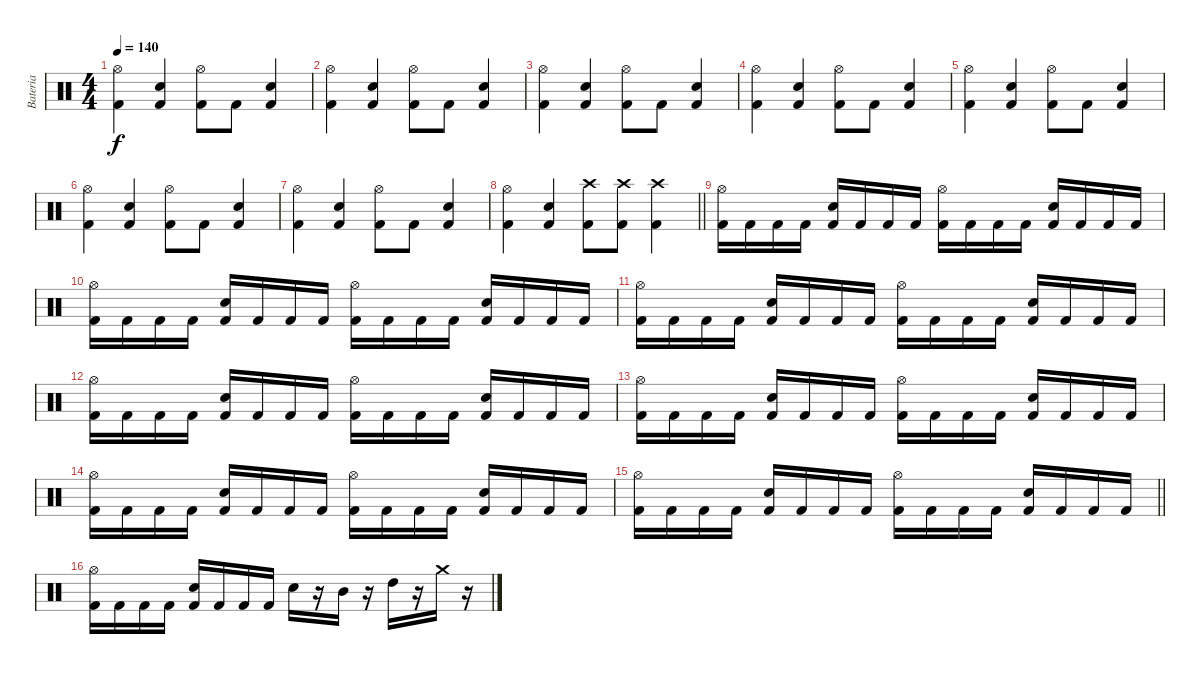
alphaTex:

\track ("Bateria" "Bateria") {instrument percussion}
\staff {score}
\articulation defaults
\ts (4 4)
\tempo 140
\clef neutral
\ks c
("Kick (hit) 2" "Hi-Hat (open)").4{dy f} ("Kick (hit) 2" "Electric Snare (hit)").4 ("Kick (hit) 2" "Hi-Hat (open)").8 "Kick (hit) 2".8 ("Kick (hit) 2" "Electric Snare (hit)").4 |
("Kick (hit) 2" "Hi-Hat (open)").4 ("Kick (hit) 2" "Electric Snare (hit)").4 ("Kick (hit) 2" "Hi-Hat (open)").8 "Kick (hit) 2".8 ("Kick (hit) 2" "Electric Snare (hit)").4 |
("Kick (hit) 2" "Hi-Hat (open)").4 ("Kick (hit) 2" "Electric Snare (hit)").4 ("Kick (hit) 2" "Hi-Hat (open)").8 "Kick (hit) 2".8 ("Kick (hit) 2" "Electric Snare (hit)").4 |
("Kick (hit) 2" "Hi-Hat (open)").4 ("Kick (hit) 2" "Electric Snare (hit)").4 ("Kick (hit) 2" "Hi-Hat (open)").8 "Kick (hit) 2".8 ("Kick (hit) 2" "Electric Snare (hit)").4 |
("Kick (hit) 2" "Hi-Hat (open)").4 ("Kick (hit) 2" "Electric Snare (hit)").4 ("Kick (hit) 2" "Hi-Hat (open)").8 "Kick (hit) 2".8 ("Kick (hit) 2" "Electric Snare (hit)").4 |
("Kick (hit) 2" "Hi-Hat (open)").4 ("Kick (hit) 2" "Electric Snare (hit)").4 ("Kick (hit) 2" "Hi-Hat (open)").8 "Kick (hit) 2".8 ("Kick (hit) 2" "Electric Snare (hit)").4 |
("Kick (hit) 2" "Hi-Hat (open)").4 ("Kick (hit) 2" "Electric Snare (hit)").4 ("Kick (hit) 2" "Hi-Hat (open)").8 "Kick (hit) 2".8 ("Kick (hit) 2" "Electric Snare (hit)").4 |
\barLineRight lightlight
("Kick (hit) 2" "Hi-Hat (open)").4 ("Kick (hit) 2" "Electric Snare (hit)").4 ("Kick (hit) 2" "Crash high (hit)").8 ("Kick (hit) 2" "Crash high (hit)").8 ("Kick (hit) 2" "Crash high (hit)").4 |
("Kick (hit) 2" "Hi-Hat (open)").16 "Kick (hit) 2".16 "Kick (hit) 2".16 "Kick (hit) 2".16 ("Kick (hit) 2" "Electric Snare (hit)").16 "Kick (hit) 2".16 "Kick (hit) 2".16 "Kick (hit) 2".16 ("Kick (hit) 2" "Hi-Hat (open)").16 "Kick (hit) 2".16 "Kick (hit) 2".16 "Kick (hit) 2".16 ("Kick (hit) 2" "Electric Snare (hit)").16 "Kick (hit) 2".16 "Kick (hit) 2".16 "Kick (hit) 2".16 |
("Kick (hit) 2" "Hi-Hat (open)").16 "Kick (hit) 2".16 "Kick (hit) 2".16 "Kick (hit) 2".16 ("Kick (hit) 2" "Electric Snare (hit)").16 "Kick (hit) 2".16 "Kick (hit) 2".16 "Kick (hit) 2".16 ("Kick (hit) 2" "Hi-Hat (open)").16 "Kick (hit) 2".16 "Kick (hit) 2".16 "Kick (hit) 2".16 ("Kick (hit) 2" "Electric Snare (hit)").16 "Kick (hit) 2".16 "Kick (hit) 2".16 "Kick (hit) 2".16 |
("Kick (hit) 2" "Hi-Hat (open)").16 "Kick (hit) 2".16 "Kick (hit) 2".16 "Kick (hit) 2".16 ("Kick (hit) 2" "Electric Snare (hit)").16 "Kick (hit) 2".16 "Kick (hit) 2".16 "Kick (hit) 2".16 ("Kick (hit) 2" "Hi-Hat (open)").16 "Kick (hit) 2".16 "Kick (hit) 2".16 "Kick (hit) 2".16 ("Kick (hit) 2" "Electric Snare (hit)").16 "Kick (hit) 2".16 "Kick (hit) 2".16 "Kick (hit) 2".16 |
("Kick (hit) 2" "Hi-Hat (open)").16 "Kick (hit) 2".16 "Kick (hit) 2".16 "Kick (hit) 2".16 ("Kick (hit) 2" "Electric Snare (hit)").16 "Kick (hit) 2".16 "Kick (hit) 2".16 "Kick (hit) 2".16 ("Kick (hit) 2" "Hi-Hat (open)").16 "Kick (hit) 2".16 "Kick (hit) 2".16 "Kick (hit) 2".16 ("Kick (hit) 2" "Electric Snare (hit)").16 "Kick (hit) 2".16 "Kick (hit) 2".16 "Kick (hit) 2".16 |
("Kick (hit) 2" "Hi-Hat (open)").16 "Kick (hit) 2".16 "Kick (hit) 2".16 "Kick (hit) 2".16 ("Kick (hit) 2" "Electric Snare (hit)").16 "Kick (hit) 2".16 "Kick (hit) 2".16 "Kick (hit) 2".16 ("Kick (hit) 2" "Hi-Hat (open)").16 "Kick (hit) 2".16 "Kick (hit) 2".16 "Kick (hit) 2".16 ("Kick (hit) 2" "Electric Snare (hit)").16 "Kick (hit) 2".16 "Kick (hit) 2".16 "Kick (hit) 2".16 |
("Kick (hit) 2" "Hi-Hat (open)").16 "Kick (hit) 2".16 "Kick (hit) 2".16 "Kick (hit) 2".16 ("Kick (hit) 2" "Electric Snare (hit)").16 "Kick (hit) 2".16 "Kick (hit) 2".16 "Kick (hit) 2".16 ("Kick (hit) 2" "Hi-Hat (open)").16 "Kick (hit) 2".16 "Kick (hit) 2".16 "Kick (hit) 2".16 ("Kick (hit) 2" "Electric Snare (hit)").16 "Kick (hit) 2".16 "Kick (hit) 2".16 "Kick (hit) 2".16 |
\barLineRight lightlight
("Kick (hit) 2" "Hi-Hat (open)").16 "Kick (hit) 2".16 "Kick (hit) 2".16 "Kick (hit) 2".16 ("Kick (hit) 2" "Electric Snare (hit)").16 "Kick (hit) 2".16 "Kick (hit) 2".16 "Kick (hit) 2".16 ("Kick (hit) 2" "Hi-Hat (open)").16 "Kick (hit) 2".16 "Kick (hit) 2".16 "Kick (hit) 2".16 ("Kick (hit) 2" "Electric Snare (hit)").16 "Kick (hit) 2".16 "Kick (hit) 2".16 "Kick (hit) 2".16 |
("Kick (hit) 2" "Hi-Hat (open)").16 "Kick (hit) 2".16 "Kick (hit) 2".16 "Kick (hit) 2".16 ("Kick (hit) 2" "Electric Snare (hit)").16 "Kick (hit) 2".16 "Kick (hit) 2".16 "Kick (hit) 2".16 "Snare (hit) 2".16 r.16 "Mid Tom (hit)".16 r.16 "High Tom (hit)".16 r.16 "Crash medium (hit)".16 r.16
